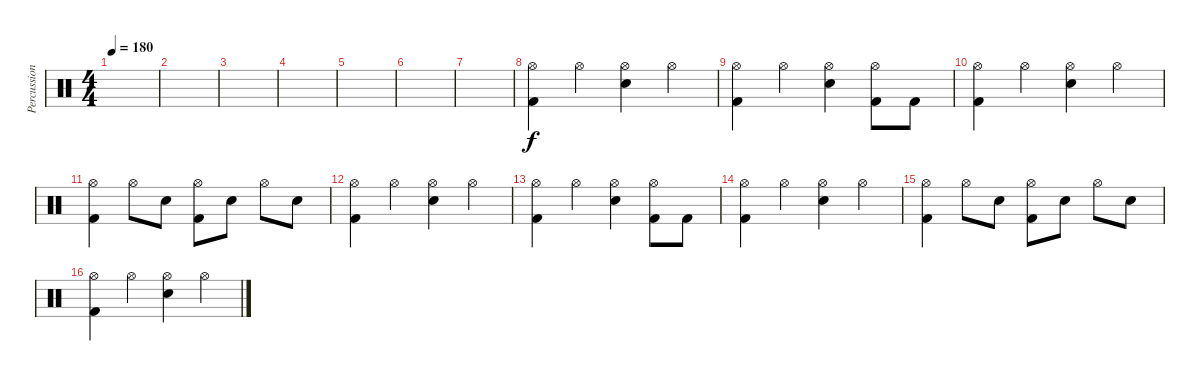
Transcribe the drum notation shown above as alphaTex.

\track ("Percussions" "Percussion") {instrument percussion}
\staff {score}
\articulation defaults
\ts (4 4)
\tempo 180
\clef neutral
\ks c
|
|
|
|
|
|
|
("Hi-Hat (open)" "Kick (hit) 2").4 "Hi-Hat (open)".4 ("Hi-Hat (open)" "Electric Snare (hit)").4 "Hi-Hat (open)".4 |
("Hi-Hat (open)" "Kick (hit) 2").4 "Hi-Hat (open)".4 ("Hi-Hat (open)" "Electric Snare (hit)").4 ("Hi-Hat (open)" "Kick (hit) 2").8 "Kick (hit) 2".8 |
("Hi-Hat (open)" "Kick (hit) 2").4 "Hi-Hat (open)".4 ("Hi-Hat (open)" "Electric Snare (hit)").4 "Hi-Hat (open)".4 |
("Hi-Hat (open)" "Kick (hit) 2").4 "Hi-Hat (open)".8 "Electric Snare (hit)".8 ("Hi-Hat (open)" "Kick (hit) 2").8 "Electric Snare (hit)".8 "Hi-Hat (open)".8 "Electric Snare (hit)".8 |
("Hi-Hat (open)" "Kick (hit) 2").4 "Hi-Hat (open)".4 ("Hi-Hat (open)" "Electric Snare (hit)").4 "Hi-Hat (open)".4 |
("Hi-Hat (open)" "Kick (hit) 2").4 "Hi-Hat (open)".4 ("Hi-Hat (open)" "Electric Snare (hit)").4 ("Hi-Hat (open)" "Kick (hit) 2").8 "Kick (hit) 2".8 |
("Hi-Hat (open)" "Kick (hit) 2").4 "Hi-Hat (open)".4 ("Hi-Hat (open)" "Electric Snare (hit)").4 "Hi-Hat (open)".4 |
("Hi-Hat (open)" "Kick (hit) 2").4 "Hi-Hat (open)".8 "Electric Snare (hit)".8 ("Hi-Hat (open)" "Kick (hit) 2").8 "Electric Snare (hit)".8 "Hi-Hat (open)".8 "Electric Snare (hit)".8 |
("Hi-Hat (open)" "Kick (hit) 2").4 "Hi-Hat (open)".4 ("Hi-Hat (open)" "Electric Snare (hit)").4 "Hi-Hat (open)".4
